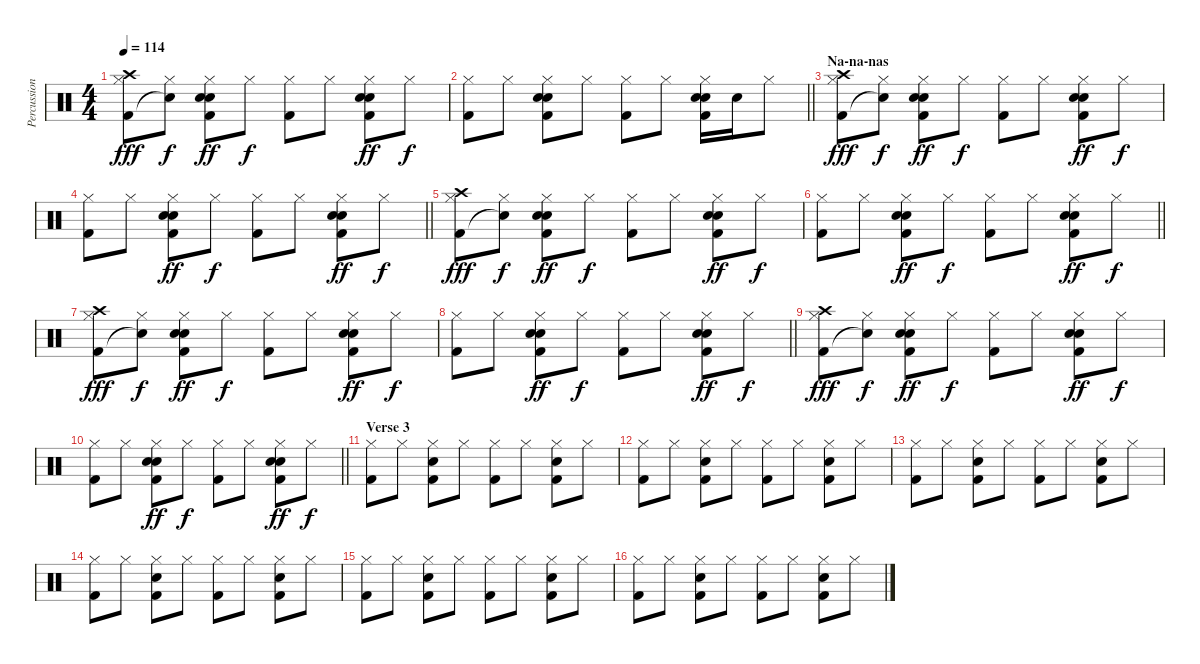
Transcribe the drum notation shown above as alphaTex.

\track ("Percussion" "Percussion") {instrument percussion}
\staff {score}
\articulation defaults
\ts (4 4)
\tempo 114
\clef neutral
\ks c
("Hi-Hat (closed)" "Kick (hit) 2" "Crash high (hit)").8{dy fff} ("Hi-Hat (closed)" "Snare (hit)"{t}).8{dy f} ("Hand Clap (hit)" "Hi-Hat (closed)" "Snare (hit) 2" "Kick (hit) 2").8{dy ff} "Hi-Hat (closed)".8{dy f} ("Hi-Hat (closed)" "Kick (hit) 2").8 "Hi-Hat (closed)".8 ("Hand Clap (hit)" "Hi-Hat (closed)" "Snare (hit) 2" "Kick (hit) 2").8{dy ff} "Hi-Hat (closed)".8{dy f} |
\barLineRight lightlight
("Hi-Hat (closed)" "Kick (hit) 2").8 "Hi-Hat (closed)".8 ("Hand Clap (hit)" "Hi-Hat (closed)" "Snare (hit) 2" "Kick (hit) 2").8 "Hi-Hat (closed)".8 ("Hi-Hat (closed)" "Kick (hit) 2").8 "Hi-Hat (closed)".8 ("Hand Clap (hit)" "Hi-Hat (closed)" "Snare (hit) 2" "Kick (hit) 2").16 "Snare (hit) 2".16 "Hi-Hat (closed)".8 |
\section ("" "Na-na-nas")
("Hi-Hat (closed)" "Kick (hit) 2" "Crash high (hit)").8{dy fff} ("Hi-Hat (closed)" "Snare (hit)"{t}).8{dy f} ("Hand Clap (hit)" "Hi-Hat (closed)" "Snare (hit) 2" "Kick (hit) 2").8{dy ff} "Hi-Hat (closed)".8{dy f} ("Hi-Hat (closed)" "Kick (hit) 2").8 "Hi-Hat (closed)".8 ("Hand Clap (hit)" "Hi-Hat (closed)" "Snare (hit) 2" "Kick (hit) 2").8{dy ff} "Hi-Hat (closed)".8{dy f} |
\barLineRight lightlight
("Hi-Hat (closed)" "Kick (hit) 2").8 "Hi-Hat (closed)".8 ("Hand Clap (hit)" "Hi-Hat (closed)" "Snare (hit) 2" "Kick (hit) 2").8{dy ff} "Hi-Hat (closed)".8{dy f} ("Hi-Hat (closed)" "Kick (hit) 2").8 "Hi-Hat (closed)".8 ("Hand Clap (hit)" "Hi-Hat (closed)" "Snare (hit) 2" "Kick (hit) 2").8{dy ff} "Hi-Hat (closed)".8{dy f} |
("Hi-Hat (closed)" "Kick (hit) 2" "Crash high (hit)").8{dy fff} ("Hi-Hat (closed)" "Snare (hit)"{t}).8{dy f} ("Hand Clap (hit)" "Hi-Hat (closed)" "Snare (hit) 2" "Kick (hit) 2").8{dy ff} "Hi-Hat (closed)".8{dy f} ("Hi-Hat (closed)" "Kick (hit) 2").8 "Hi-Hat (closed)".8 ("Hand Clap (hit)" "Hi-Hat (closed)" "Snare (hit) 2" "Kick (hit) 2").8{dy ff} "Hi-Hat (closed)".8{dy f} |
\barLineRight lightlight
("Hi-Hat (closed)" "Kick (hit) 2").8 "Hi-Hat (closed)".8 ("Hand Clap (hit)" "Hi-Hat (closed)" "Snare (hit) 2" "Kick (hit) 2").8{dy ff} "Hi-Hat (closed)".8{dy f} ("Hi-Hat (closed)" "Kick (hit) 2").8 "Hi-Hat (closed)".8 ("Hand Clap (hit)" "Hi-Hat (closed)" "Snare (hit) 2" "Kick (hit) 2").8{dy ff} "Hi-Hat (closed)".8{dy f} |
("Hi-Hat (closed)" "Kick (hit) 2" "Crash high (hit)").8{dy fff} ("Hi-Hat (closed)" "Snare (hit)"{t}).8{dy f} ("Hand Clap (hit)" "Hi-Hat (closed)" "Snare (hit) 2" "Kick (hit) 2").8{dy ff} "Hi-Hat (closed)".8{dy f} ("Hi-Hat (closed)" "Kick (hit) 2").8 "Hi-Hat (closed)".8 ("Hand Clap (hit)" "Hi-Hat (closed)" "Snare (hit) 2" "Kick (hit) 2").8{dy ff} "Hi-Hat (closed)".8{dy f} |
\barLineRight lightlight
("Hi-Hat (closed)" "Kick (hit) 2").8 "Hi-Hat (closed)".8 ("Hand Clap (hit)" "Hi-Hat (closed)" "Snare (hit) 2" "Kick (hit) 2").8{dy ff} "Hi-Hat (closed)".8{dy f} ("Hi-Hat (closed)" "Kick (hit) 2").8 "Hi-Hat (closed)".8 ("Hand Clap (hit)" "Hi-Hat (closed)" "Snare (hit) 2" "Kick (hit) 2").8{dy ff} "Hi-Hat (closed)".8{dy f} |
("Hi-Hat (closed)" "Kick (hit) 2" "Crash high (hit)").8{dy fff} ("Hi-Hat (closed)" "Snare (hit)"{t}).8{dy f} ("Hand Clap (hit)" "Hi-Hat (closed)" "Snare (hit) 2" "Kick (hit) 2").8{dy ff} "Hi-Hat (closed)".8{dy f} ("Hi-Hat (closed)" "Kick (hit) 2").8 "Hi-Hat (closed)".8 ("Hand Clap (hit)" "Hi-Hat (closed)" "Snare (hit) 2" "Kick (hit) 2").8{dy ff} "Hi-Hat (closed)".8{dy f} |
\barLineRight lightlight
("Hi-Hat (closed)" "Kick (hit) 2").8 "Hi-Hat (closed)".8 ("Hand Clap (hit)" "Hi-Hat (closed)" "Snare (hit) 2" "Kick (hit) 2").8{dy ff} "Hi-Hat (closed)".8{dy f} ("Hi-Hat (closed)" "Kick (hit) 2").8 "Hi-Hat (closed)".8 ("Hand Clap (hit)" "Hi-Hat (closed)" "Snare (hit) 2" "Kick (hit) 2").8{dy ff} "Hi-Hat (closed)".8{dy f} |
\section ("" "Verse 3")
("Hi-Hat (closed)" "Kick (hit) 2").8 "Hi-Hat (closed)".8 ("Hi-Hat (closed)" "Snare (hit) 2" "Kick (hit) 2").8 "Hi-Hat (closed)".8 ("Hi-Hat (closed)" "Kick (hit) 2").8 "Hi-Hat (closed)".8 ("Hi-Hat (closed)" "Snare (hit) 2" "Kick (hit) 2").8 "Hi-Hat (closed)".8 |
("Hi-Hat (closed)" "Kick (hit) 2").8 "Hi-Hat (closed)".8 ("Hi-Hat (closed)" "Snare (hit) 2" "Kick (hit) 2").8 "Hi-Hat (closed)".8 ("Hi-Hat (closed)" "Kick (hit) 2").8 "Hi-Hat (closed)".8 ("Hi-Hat (closed)" "Snare (hit) 2" "Kick (hit) 2").8 "Hi-Hat (closed)".8 |
("Hi-Hat (closed)" "Kick (hit) 2").8 "Hi-Hat (closed)".8 ("Hi-Hat (closed)" "Snare (hit) 2" "Kick (hit) 2").8 "Hi-Hat (closed)".8 ("Hi-Hat (closed)" "Kick (hit) 2").8 "Hi-Hat (closed)".8 ("Hi-Hat (closed)" "Snare (hit) 2" "Kick (hit) 2").8 "Hi-Hat (closed)".8 |
("Hi-Hat (closed)" "Kick (hit) 2").8 "Hi-Hat (closed)".8 ("Hi-Hat (closed)" "Snare (hit) 2" "Kick (hit) 2").8 "Hi-Hat (closed)".8 ("Hi-Hat (closed)" "Kick (hit) 2").8 "Hi-Hat (closed)".8 ("Hi-Hat (closed)" "Snare (hit) 2" "Kick (hit) 2").8 "Hi-Hat (closed)".8 |
("Hi-Hat (closed)" "Kick (hit) 2").8 "Hi-Hat (closed)".8 ("Hi-Hat (closed)" "Snare (hit) 2" "Kick (hit) 2").8 "Hi-Hat (closed)".8 ("Hi-Hat (closed)" "Kick (hit) 2").8 "Hi-Hat (closed)".8 ("Hi-Hat (closed)" "Snare (hit) 2" "Kick (hit) 2").8 "Hi-Hat (closed)".8 |
("Hi-Hat (closed)" "Kick (hit) 2").8 "Hi-Hat (closed)".8 ("Hi-Hat (closed)" "Snare (hit) 2" "Kick (hit) 2").8 "Hi-Hat (closed)".8 ("Hi-Hat (closed)" "Kick (hit) 2").8 "Hi-Hat (closed)".8 ("Hi-Hat (closed)" "Snare (hit) 2" "Kick (hit) 2").8 "Hi-Hat (closed)".8
